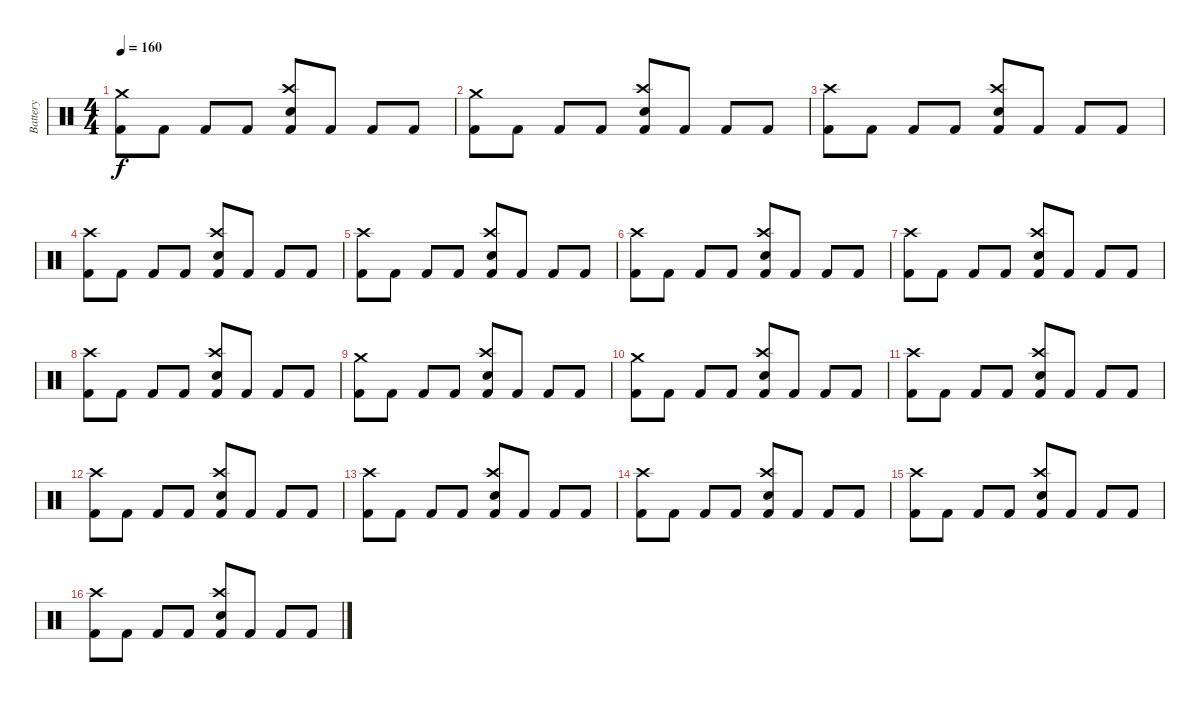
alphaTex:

\track ("Battery" "Battery") {instrument percussion}
\staff {score}
\articulation defaults
\ts (4 4)
\tempo 160
\clef neutral
\ks c
("Crash medium (hit)" "Kick (hit) 2").8{dy f} "Kick (hit) 2".8 "Kick (hit) 2".8 "Kick (hit) 2".8 ("Crash high (hit)" "Electric Snare (hit)" "Kick (hit) 2").8 "Kick (hit) 2".8 "Kick (hit) 2".8 "Kick (hit) 2".8 |
("Crash medium (hit)" "Kick (hit) 2").8 "Kick (hit) 2".8 "Kick (hit) 2".8 "Kick (hit) 2".8 ("Crash high (hit)" "Electric Snare (hit)" "Kick (hit) 2").8 "Kick (hit) 2".8 "Kick (hit) 2".8 "Kick (hit) 2".8 |
("Crash high (hit)" "Kick (hit) 2").8 "Kick (hit) 2".8 "Kick (hit) 2".8 "Kick (hit) 2".8 ("Crash high (hit)" "Electric Snare (hit)" "Kick (hit) 2").8 "Kick (hit) 2".8 "Kick (hit) 2".8 "Kick (hit) 2".8 |
("Crash high (hit)" "Kick (hit) 2").8 "Kick (hit) 2".8 "Kick (hit) 2".8 "Kick (hit) 2".8 ("Crash high (hit)" "Electric Snare (hit)" "Kick (hit) 2").8 "Kick (hit) 2".8 "Kick (hit) 2".8 "Kick (hit) 2".8 |
("Crash high (hit)" "Kick (hit) 2").8 "Kick (hit) 2".8 "Kick (hit) 2".8 "Kick (hit) 2".8 ("Crash high (hit)" "Electric Snare (hit)" "Kick (hit) 2").8 "Kick (hit) 2".8 "Kick (hit) 2".8 "Kick (hit) 2".8 |
("Crash high (hit)" "Kick (hit) 2").8 "Kick (hit) 2".8 "Kick (hit) 2".8 "Kick (hit) 2".8 ("Crash high (hit)" "Electric Snare (hit)" "Kick (hit) 2").8 "Kick (hit) 2".8 "Kick (hit) 2".8 "Kick (hit) 2".8 |
("Crash high (hit)" "Kick (hit) 2").8 "Kick (hit) 2".8 "Kick (hit) 2".8 "Kick (hit) 2".8 ("Crash high (hit)" "Electric Snare (hit)" "Kick (hit) 2").8 "Kick (hit) 2".8 "Kick (hit) 2".8 "Kick (hit) 2".8 |
("Crash high (hit)" "Kick (hit) 2").8 "Kick (hit) 2".8 "Kick (hit) 2".8 "Kick (hit) 2".8 ("Crash high (hit)" "Electric Snare (hit)" "Kick (hit) 2").8 "Kick (hit) 2".8 "Kick (hit) 2".8 "Kick (hit) 2".8 |
("Crash medium (hit)" "Kick (hit) 2").8 "Kick (hit) 2".8 "Kick (hit) 2".8 "Kick (hit) 2".8 ("Crash high (hit)" "Electric Snare (hit)" "Kick (hit) 2").8 "Kick (hit) 2".8 "Kick (hit) 2".8 "Kick (hit) 2".8 |
("Crash medium (hit)" "Kick (hit) 2").8 "Kick (hit) 2".8 "Kick (hit) 2".8 "Kick (hit) 2".8 ("Crash high (hit)" "Electric Snare (hit)" "Kick (hit) 2").8 "Kick (hit) 2".8 "Kick (hit) 2".8 "Kick (hit) 2".8 |
("Crash high (hit)" "Kick (hit) 2").8 "Kick (hit) 2".8 "Kick (hit) 2".8 "Kick (hit) 2".8 ("Crash high (hit)" "Electric Snare (hit)" "Kick (hit) 2").8 "Kick (hit) 2".8 "Kick (hit) 2".8 "Kick (hit) 2".8 |
("Crash high (hit)" "Kick (hit) 2").8 "Kick (hit) 2".8 "Kick (hit) 2".8 "Kick (hit) 2".8 ("Crash high (hit)" "Electric Snare (hit)" "Kick (hit) 2").8 "Kick (hit) 2".8 "Kick (hit) 2".8 "Kick (hit) 2".8 |
("Crash high (hit)" "Kick (hit) 2").8 "Kick (hit) 2".8 "Kick (hit) 2".8 "Kick (hit) 2".8 ("Crash high (hit)" "Electric Snare (hit)" "Kick (hit) 2").8 "Kick (hit) 2".8 "Kick (hit) 2".8 "Kick (hit) 2".8 |
("Crash high (hit)" "Kick (hit) 2").8 "Kick (hit) 2".8 "Kick (hit) 2".8 "Kick (hit) 2".8 ("Crash high (hit)" "Electric Snare (hit)" "Kick (hit) 2").8 "Kick (hit) 2".8 "Kick (hit) 2".8 "Kick (hit) 2".8 |
("Crash high (hit)" "Kick (hit) 2").8 "Kick (hit) 2".8 "Kick (hit) 2".8 "Kick (hit) 2".8 ("Crash high (hit)" "Electric Snare (hit)" "Kick (hit) 2").8 "Kick (hit) 2".8 "Kick (hit) 2".8 "Kick (hit) 2".8 |
("Crash high (hit)" "Kick (hit) 2").8 "Kick (hit) 2".8 "Kick (hit) 2".8 "Kick (hit) 2".8 ("Crash high (hit)" "Electric Snare (hit)" "Kick (hit) 2").8 "Kick (hit) 2".8 "Kick (hit) 2".8 "Kick (hit) 2".8
